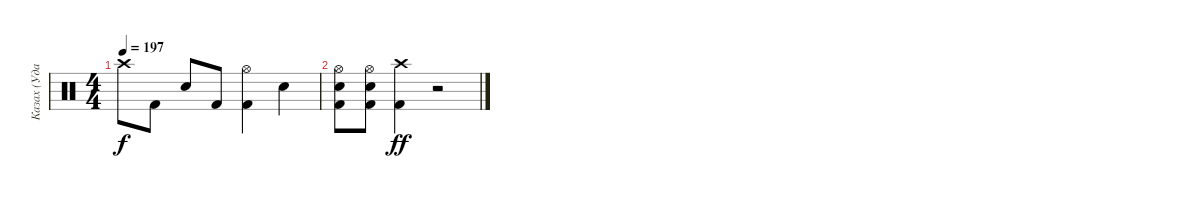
\track ("Казах (Ударные)" "Казах (Уда") {instrument percussion}
\staff {score}
\articulation defaults
\ts (4 4)
\tempo 197
\clef neutral
\ks c "Crash high (hit)"{t}.8{dy f} "Kick (hit) 2".8 "Electric Snare (hit)".8 "Kick (hit) 2".8
("Hi-Hat (open)" "Kick (hit) 2").4 "Electric Snare (hit)".4 |
("Hi-Hat (open)" "Electric Snare (hit)" "Kick (hit) 2").8 ("Hi-Hat (open)" "Electric Snare (hit)" "Kick (hit) 2").8 ("Crash high (hit)" "Kick (hit) 2").4{dy ff} r.2
